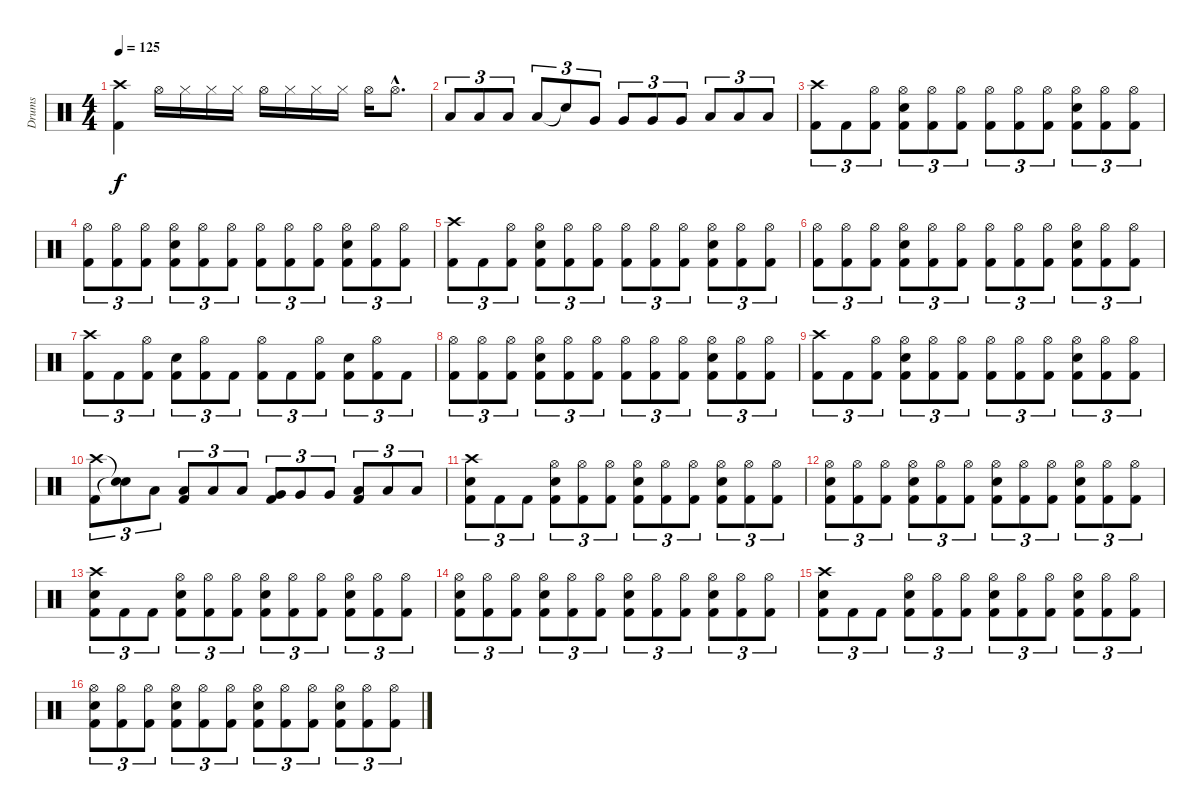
\track ("Drums" "Drums") {instrument percussion}
\staff {score}
\articulation defaults
\ts (4 4)
\tempo 125
\clef neutral
\ks c
("Crash high (hit)" "Kick (hit) 2").4{dy f} "Hi-Hat (open)".16 "Hi-Hat (closed)".16 "Hi-Hat (closed)".16 "Hi-Hat (closed)".16 "Hi-Hat (open)".16 "Hi-Hat (closed)".16 "Hi-Hat (closed)".16 "Hi-Hat (closed)".16 "Hi-Hat (open)".16 "Hi-Hat (open)"{hac}.8{d} |
"Low Tom (hit)".8{tu (3 2)} "Low Tom (hit)".8{tu (3 2)} "Low Tom (hit)".8{tu (3 2)} "Low Tom (hit)".8{tu (3 2)} "Snare (hit)"{t}.8{tu (3 2)} "Very Low Tom (hit)".8{tu (3 2)} "Very Low Tom (hit)".8{tu (3 2)} "Very Low Tom (hit)".8{tu (3 2)} "Very Low Tom (hit)".8{tu (3 2)} "Low Floor Tom (hit)".8{tu (3 2)} "Low Floor Tom (hit)".8{tu (3 2)} "Low Floor Tom (hit)".8{tu (3 2)} |
("Crash high (hit)" "Kick (hit) 2").8{tu (3 2)} "Kick (hit) 2".8{tu (3 2)} ("Hi-Hat (open)" "Kick (hit) 2").8{tu (3 2)} ("Hi-Hat (open)" "Snare (hit) 2" "Kick (hit) 2").8{tu (3 2)} ("Hi-Hat (open)" "Kick (hit) 2").8{tu (3 2)} ("Hi-Hat (open)" "Kick (hit) 2").8{tu (3 2)} ("Hi-Hat (open)" "Kick (hit) 2").8{tu (3 2)} ("Hi-Hat (open)" "Kick (hit) 2").8{tu (3 2)} ("Hi-Hat (open)" "Kick (hit) 2").8{tu (3 2)} ("Hi-Hat (open)" "Snare (hit) 2" "Kick (hit) 2").8{tu (3 2)} ("Hi-Hat (open)" "Kick (hit) 2").8{tu (3 2)} ("Hi-Hat (open)" "Kick (hit) 2").8{tu (3 2)} |
("Hi-Hat (open)" "Kick (hit) 2").8{tu (3 2)} ("Hi-Hat (open)" "Kick (hit) 2").8{tu (3 2)} ("Hi-Hat (open)" "Kick (hit) 2").8{tu (3 2)} ("Hi-Hat (open)" "Snare (hit) 2" "Kick (hit) 2").8{tu (3 2)} ("Hi-Hat (open)" "Kick (hit) 2").8{tu (3 2)} ("Hi-Hat (open)" "Kick (hit) 2").8{tu (3 2)} ("Hi-Hat (open)" "Kick (hit) 2").8{tu (3 2)} ("Hi-Hat (open)" "Kick (hit) 2").8{tu (3 2)} ("Hi-Hat (open)" "Kick (hit) 2").8{tu (3 2)} ("Hi-Hat (open)" "Snare (hit) 2" "Kick (hit) 2").8{tu (3 2)} ("Hi-Hat (open)" "Kick (hit) 2").8{tu (3 2)} ("Hi-Hat (open)" "Kick (hit) 2").8{tu (3 2)} |
("Crash high (hit)" "Kick (hit) 2").8{tu (3 2)} "Kick (hit) 2".8{tu (3 2)} ("Hi-Hat (open)" "Kick (hit) 2").8{tu (3 2)} ("Hi-Hat (open)" "Snare (hit) 2" "Kick (hit) 2").8{tu (3 2)} ("Hi-Hat (open)" "Kick (hit) 2").8{tu (3 2)} ("Hi-Hat (open)" "Kick (hit) 2").8{tu (3 2)} ("Hi-Hat (open)" "Kick (hit) 2").8{tu (3 2)} ("Hi-Hat (open)" "Kick (hit) 2").8{tu (3 2)} ("Hi-Hat (open)" "Kick (hit) 2").8{tu (3 2)} ("Hi-Hat (open)" "Snare (hit) 2" "Kick (hit) 2").8{tu (3 2)} ("Hi-Hat (open)" "Kick (hit) 2").8{tu (3 2)} ("Hi-Hat (open)" "Kick (hit) 2").8{tu (3 2)} |
("Hi-Hat (open)" "Kick (hit) 2").8{tu (3 2)} ("Hi-Hat (open)" "Kick (hit) 2").8{tu (3 2)} ("Hi-Hat (open)" "Kick (hit) 2").8{tu (3 2)} ("Hi-Hat (open)" "Snare (hit) 2" "Kick (hit) 2").8{tu (3 2)} ("Hi-Hat (open)" "Kick (hit) 2").8{tu (3 2)} ("Hi-Hat (open)" "Kick (hit) 2").8{tu (3 2)} ("Hi-Hat (open)" "Kick (hit) 2").8{tu (3 2)} ("Hi-Hat (open)" "Kick (hit) 2").8{tu (3 2)} ("Hi-Hat (open)" "Kick (hit) 2").8{tu (3 2)} ("Hi-Hat (open)" "Snare (hit) 2" "Kick (hit) 2").8{tu (3 2)} ("Hi-Hat (open)" "Kick (hit) 2").8{tu (3 2)} ("Hi-Hat (open)" "Kick (hit) 2").8{tu (3 2)} |
("Crash high (hit)" "Kick (hit) 2").8{tu (3 2)} "Kick (hit) 2".8{tu (3 2)} ("Hi-Hat (open)" "Kick (hit) 2").8{tu (3 2)} ("Snare (hit) 2" "Kick (hit) 2").8{tu (3 2)} ("Hi-Hat (open)" "Kick (hit) 2").8{tu (3 2)} "Kick (hit) 2".8{tu (3 2)} ("Hi-Hat (open)" "Kick (hit) 2").8{tu (3 2)} "Kick (hit) 2".8{tu (3 2)} ("Hi-Hat (open)" "Kick (hit) 2").8{tu (3 2)} ("Snare (hit) 2" "Kick (hit) 2").8{tu (3 2)} ("Hi-Hat (open)" "Kick (hit) 2").8{tu (3 2)} "Kick (hit) 2".8{tu (3 2)} |
("Hi-Hat (open)" "Kick (hit) 2").8{tu (3 2)} ("Hi-Hat (open)" "Kick (hit) 2").8{tu (3 2)} ("Hi-Hat (open)" "Kick (hit) 2").8{tu (3 2)} ("Hi-Hat (open)" "Snare (hit) 2" "Kick (hit) 2").8{tu (3 2)} ("Hi-Hat (open)" "Kick (hit) 2").8{tu (3 2)} ("Hi-Hat (open)" "Kick (hit) 2").8{tu (3 2)} ("Hi-Hat (open)" "Kick (hit) 2").8{tu (3 2)} ("Hi-Hat (open)" "Kick (hit) 2").8{tu (3 2)} ("Hi-Hat (open)" "Kick (hit) 2").8{tu (3 2)} ("Hi-Hat (open)" "Snare (hit) 2" "Kick (hit) 2").8{tu (3 2)} ("Hi-Hat (open)" "Kick (hit) 2").8{tu (3 2)} ("Hi-Hat (open)" "Kick (hit) 2").8{tu (3 2)} |
("Crash high (hit)" "Kick (hit) 2").8{tu (3 2)} "Kick (hit) 2".8{tu (3 2)} ("Hi-Hat (open)" "Kick (hit) 2").8{tu (3 2)} ("Hi-Hat (open)" "Snare (hit) 2" "Kick (hit) 2").8{tu (3 2)} ("Hi-Hat (open)" "Kick (hit) 2").8{tu (3 2)} ("Hi-Hat (open)" "Kick (hit) 2").8{tu (3 2)} ("Hi-Hat (open)" "Kick (hit) 2").8{tu (3 2)} ("Hi-Hat (open)" "Kick (hit) 2").8{tu (3 2)} ("Hi-Hat (open)" "Kick (hit) 2").8{tu (3 2)} ("Hi-Hat (open)" "Snare (hit) 2" "Kick (hit) 2").8{tu (3 2)} ("Hi-Hat (open)" "Kick (hit) 2").8{tu (3 2)} ("Hi-Hat (open)" "Kick (hit) 2").8{tu (3 2)} |
("Crash high (hit)" "Kick (hit) 2").8{tu (3 2)} ("Snare (hit)"{t} "Snare (hit)"{t}).8{tu (3 2)} "Low Tom (hit)".8{tu (3 2)} ("Kick (hit) 2" "Low Tom (hit)").8{tu (3 2)} "Low Tom (hit)".8{tu (3 2)} "Low Tom (hit)".8{tu (3 2)} ("Kick (hit) 2" "Very Low Tom (hit)").8{tu (3 2)} "Very Low Tom (hit)".8{tu (3 2)} "Very Low Tom (hit)".8{tu (3 2)} ("Kick (hit) 2" "Low Floor Tom (hit)").8{tu (3 2)} "Low Floor Tom (hit)".8{tu (3 2)} "Low Floor Tom (hit)".8{tu (3 2)} |
("Crash high (hit)" "Snare (hit) 2" "Kick (hit) 2").8{tu (3 2)} "Kick (hit) 2".8{tu (3 2)} "Kick (hit) 2".8{tu (3 2)} ("Hi-Hat (open)" "Snare (hit) 2" "Kick (hit) 2").8{tu (3 2)} ("Hi-Hat (open)" "Kick (hit) 2").8{tu (3 2)} ("Hi-Hat (open)" "Kick (hit) 2").8{tu (3 2)} ("Hi-Hat (open)" "Snare (hit) 2" "Kick (hit) 2").8{tu (3 2)} ("Hi-Hat (open)" "Kick (hit) 2").8{tu (3 2)} ("Hi-Hat (open)" "Kick (hit) 2").8{tu (3 2)} ("Hi-Hat (open)" "Snare (hit) 2" "Kick (hit) 2").8{tu (3 2)} ("Hi-Hat (open)" "Kick (hit) 2").8{tu (3 2)} ("Hi-Hat (open)" "Kick (hit) 2").8{tu (3 2)} |
("Hi-Hat (open)" "Snare (hit) 2" "Kick (hit) 2").8{tu (3 2)} ("Hi-Hat (open)" "Kick (hit) 2").8{tu (3 2)} ("Hi-Hat (open)" "Kick (hit) 2").8{tu (3 2)} ("Hi-Hat (open)" "Snare (hit) 2" "Kick (hit) 2").8{tu (3 2)} ("Hi-Hat (open)" "Kick (hit) 2").8{tu (3 2)} ("Hi-Hat (open)" "Kick (hit) 2").8{tu (3 2)} ("Hi-Hat (open)" "Snare (hit) 2" "Kick (hit) 2").8{tu (3 2)} ("Hi-Hat (open)" "Kick (hit) 2").8{tu (3 2)} ("Hi-Hat (open)" "Kick (hit) 2").8{tu (3 2)} ("Hi-Hat (open)" "Snare (hit) 2" "Kick (hit) 2").8{tu (3 2)} ("Hi-Hat (open)" "Kick (hit) 2").8{tu (3 2)} ("Hi-Hat (open)" "Kick (hit) 2").8{tu (3 2)} |
("Crash high (hit)" "Snare (hit) 2" "Kick (hit) 2").8{tu (3 2)} "Kick (hit) 2".8{tu (3 2)} "Kick (hit) 2".8{tu (3 2)} ("Hi-Hat (open)" "Snare (hit) 2" "Kick (hit) 2").8{tu (3 2)} ("Hi-Hat (open)" "Kick (hit) 2").8{tu (3 2)} ("Hi-Hat (open)" "Kick (hit) 2").8{tu (3 2)} ("Hi-Hat (open)" "Snare (hit) 2" "Kick (hit) 2").8{tu (3 2)} ("Hi-Hat (open)" "Kick (hit) 2").8{tu (3 2)} ("Hi-Hat (open)" "Kick (hit) 2").8{tu (3 2)} ("Hi-Hat (open)" "Snare (hit) 2" "Kick (hit) 2").8{tu (3 2)} ("Hi-Hat (open)" "Kick (hit) 2").8{tu (3 2)} ("Hi-Hat (open)" "Kick (hit) 2").8{tu (3 2)} |
("Hi-Hat (open)" "Snare (hit) 2" "Kick (hit) 2").8{tu (3 2)} ("Hi-Hat (open)" "Kick (hit) 2").8{tu (3 2)} ("Hi-Hat (open)" "Kick (hit) 2").8{tu (3 2)} ("Hi-Hat (open)" "Snare (hit) 2" "Kick (hit) 2").8{tu (3 2)} ("Hi-Hat (open)" "Kick (hit) 2").8{tu (3 2)} ("Hi-Hat (open)" "Kick (hit) 2").8{tu (3 2)} ("Hi-Hat (open)" "Snare (hit) 2" "Kick (hit) 2").8{tu (3 2)} ("Hi-Hat (open)" "Kick (hit) 2").8{tu (3 2)} ("Hi-Hat (open)" "Kick (hit) 2").8{tu (3 2)} ("Hi-Hat (open)" "Snare (hit) 2" "Kick (hit) 2").8{tu (3 2)} ("Hi-Hat (open)" "Kick (hit) 2").8{tu (3 2)} ("Hi-Hat (open)" "Kick (hit) 2").8{tu (3 2)} |
("Crash high (hit)" "Snare (hit) 2" "Kick (hit) 2").8{tu (3 2)} "Kick (hit) 2".8{tu (3 2)} "Kick (hit) 2".8{tu (3 2)} ("Hi-Hat (open)" "Snare (hit) 2" "Kick (hit) 2").8{tu (3 2)} ("Hi-Hat (open)" "Kick (hit) 2").8{tu (3 2)} ("Hi-Hat (open)" "Kick (hit) 2").8{tu (3 2)} ("Hi-Hat (open)" "Snare (hit) 2" "Kick (hit) 2").8{tu (3 2)} ("Hi-Hat (open)" "Kick (hit) 2").8{tu (3 2)} ("Hi-Hat (open)" "Kick (hit) 2").8{tu (3 2)} ("Hi-Hat (open)" "Snare (hit) 2" "Kick (hit) 2").8{tu (3 2)} ("Hi-Hat (open)" "Kick (hit) 2").8{tu (3 2)} ("Hi-Hat (open)" "Kick (hit) 2").8{tu (3 2)} |
("Hi-Hat (open)" "Snare (hit) 2" "Kick (hit) 2").8{tu (3 2)} ("Hi-Hat (open)" "Kick (hit) 2").8{tu (3 2)} ("Hi-Hat (open)" "Kick (hit) 2").8{tu (3 2)} ("Hi-Hat (open)" "Snare (hit) 2" "Kick (hit) 2").8{tu (3 2)} ("Hi-Hat (open)" "Kick (hit) 2").8{tu (3 2)} ("Hi-Hat (open)" "Kick (hit) 2").8{tu (3 2)} ("Hi-Hat (open)" "Snare (hit) 2" "Kick (hit) 2").8{tu (3 2)} ("Hi-Hat (open)" "Kick (hit) 2").8{tu (3 2)} ("Hi-Hat (open)" "Kick (hit) 2").8{tu (3 2)} ("Hi-Hat (open)" "Snare (hit) 2" "Kick (hit) 2").8{tu (3 2)} ("Hi-Hat (open)" "Kick (hit) 2").8{tu (3 2)} ("Hi-Hat (open)" "Kick (hit) 2").8{tu (3 2)}
